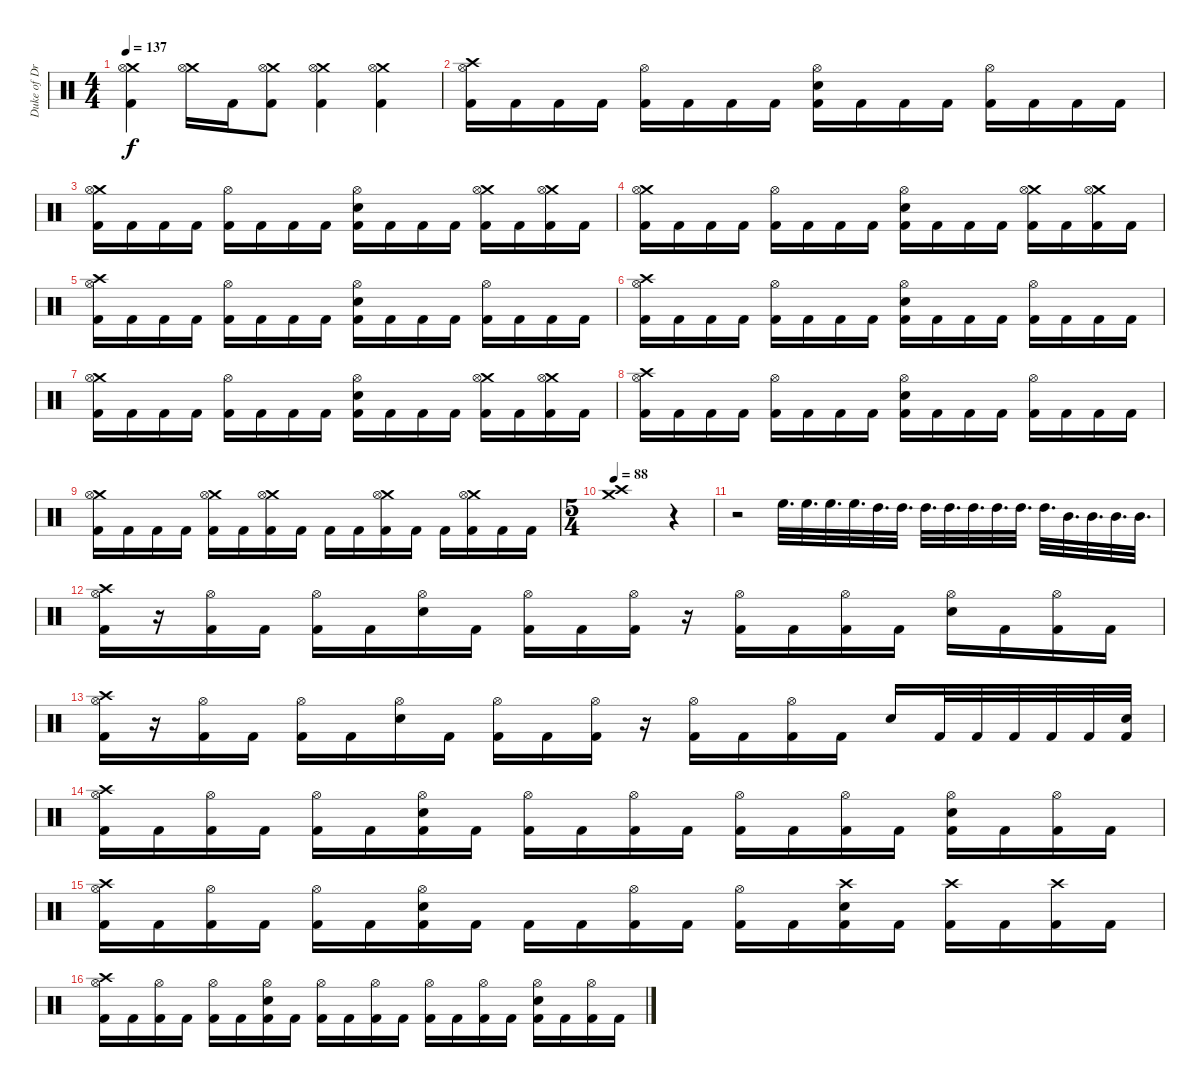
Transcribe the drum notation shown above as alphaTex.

\track ("Duke of Drumington" "Duke of Dr") {instrument percussion}
\staff {score}
\articulation defaults
\ts (4 4)
\tempo 137
\clef neutral
\ks c
("Crash medium (hit)" "Hi-Hat (open)" "Kick (hit) 2").4{dy f} ("Crash medium (hit)" "Hi-Hat (open)").16 "Kick (hit) 2".16 ("Crash medium (hit)" "Hi-Hat (open)" "Kick (hit) 2").8 ("Crash medium (hit)" "Hi-Hat (open)" "Kick (hit) 2").4 ("Crash medium (hit)" "Hi-Hat (open)" "Kick (hit) 2").4 |
("Crash high (hit)" "Hi-Hat (open)" "Kick (hit) 2").16 "Kick (hit) 2".16 "Kick (hit) 2".16 "Kick (hit) 2".16 ("Hi-Hat (open)" "Kick (hit) 2").16 "Kick (hit) 2".16 "Kick (hit) 2".16 "Kick (hit) 2".16 ("Hi-Hat (open)" "Snare (hit) 2" "Kick (hit) 2").16 "Kick (hit) 2".16 "Kick (hit) 2".16 "Kick (hit) 2".16 ("Hi-Hat (open)" "Kick (hit) 2").16 "Kick (hit) 2".16 "Kick (hit) 2".16 "Kick (hit) 2".16 |
("Crash medium (hit)" "Hi-Hat (open)" "Kick (hit) 2").16 "Kick (hit) 2".16 "Kick (hit) 2".16 "Kick (hit) 2".16 ("Hi-Hat (open)" "Kick (hit) 2").16 "Kick (hit) 2".16 "Kick (hit) 2".16 "Kick (hit) 2".16 ("Hi-Hat (open)" "Snare (hit) 2" "Kick (hit) 2").16 "Kick (hit) 2".16 "Kick (hit) 2".16 "Kick (hit) 2".16 ("Crash medium (hit)" "Hi-Hat (open)" "Kick (hit) 2").16 "Kick (hit) 2".16 ("Crash medium (hit)" "Hi-Hat (open)" "Kick (hit) 2").16 "Kick (hit) 2".16 |
("Crash medium (hit)" "Hi-Hat (open)" "Kick (hit) 2").16 "Kick (hit) 2".16 "Kick (hit) 2".16 "Kick (hit) 2".16 ("Hi-Hat (open)" "Kick (hit) 2").16 "Kick (hit) 2".16 "Kick (hit) 2".16 "Kick (hit) 2".16 ("Hi-Hat (open)" "Snare (hit) 2" "Kick (hit) 2").16 "Kick (hit) 2".16 "Kick (hit) 2".16 "Kick (hit) 2".16 ("Crash medium (hit)" "Hi-Hat (open)" "Kick (hit) 2").16 "Kick (hit) 2".16 ("Crash medium (hit)" "Hi-Hat (open)" "Kick (hit) 2").16 "Kick (hit) 2".16 |
("Crash high (hit)" "Hi-Hat (open)" "Kick (hit) 2").16 "Kick (hit) 2".16 "Kick (hit) 2".16 "Kick (hit) 2".16 ("Hi-Hat (open)" "Kick (hit) 2").16 "Kick (hit) 2".16 "Kick (hit) 2".16 "Kick (hit) 2".16 ("Hi-Hat (open)" "Snare (hit) 2" "Kick (hit) 2").16 "Kick (hit) 2".16 "Kick (hit) 2".16 "Kick (hit) 2".16 ("Hi-Hat (open)" "Kick (hit) 2").16 "Kick (hit) 2".16 "Kick (hit) 2".16 "Kick (hit) 2".16 |
("Crash high (hit)" "Hi-Hat (open)" "Kick (hit) 2").16 "Kick (hit) 2".16 "Kick (hit) 2".16 "Kick (hit) 2".16 ("Hi-Hat (open)" "Kick (hit) 2").16 "Kick (hit) 2".16 "Kick (hit) 2".16 "Kick (hit) 2".16 ("Hi-Hat (open)" "Snare (hit) 2" "Kick (hit) 2").16 "Kick (hit) 2".16 "Kick (hit) 2".16 "Kick (hit) 2".16 ("Hi-Hat (open)" "Kick (hit) 2").16 "Kick (hit) 2".16 "Kick (hit) 2".16 "Kick (hit) 2".16 |
("Crash medium (hit)" "Hi-Hat (open)" "Kick (hit) 2").16 "Kick (hit) 2".16 "Kick (hit) 2".16 "Kick (hit) 2".16 ("Hi-Hat (open)" "Kick (hit) 2").16 "Kick (hit) 2".16 "Kick (hit) 2".16 "Kick (hit) 2".16 ("Hi-Hat (open)" "Snare (hit) 2" "Kick (hit) 2").16 "Kick (hit) 2".16 "Kick (hit) 2".16 "Kick (hit) 2".16 ("Crash medium (hit)" "Hi-Hat (open)" "Kick (hit) 2").16 "Kick (hit) 2".16 ("Crash medium (hit)" "Hi-Hat (open)" "Kick (hit) 2").16 "Kick (hit) 2".16 |
("Crash high (hit)" "Hi-Hat (open)" "Kick (hit) 2").16 "Kick (hit) 2".16 "Kick (hit) 2".16 "Kick (hit) 2".16 ("Hi-Hat (open)" "Kick (hit) 2").16 "Kick (hit) 2".16 "Kick (hit) 2".16 "Kick (hit) 2".16 ("Hi-Hat (open)" "Snare (hit) 2" "Kick (hit) 2").16 "Kick (hit) 2".16 "Kick (hit) 2".16 "Kick (hit) 2".16 ("Hi-Hat (open)" "Kick (hit) 2").16 "Kick (hit) 2".16 "Kick (hit) 2".16 "Kick (hit) 2".16 |
("Crash medium (hit)" "Hi-Hat (open)" "Kick (hit) 2").16 "Kick (hit) 2".16 "Kick (hit) 2".16 "Kick (hit) 2".16 ("Crash medium (hit)" "Hi-Hat (open)" "Kick (hit) 2").16 "Kick (hit) 2".16 ("Crash medium (hit)" "Hi-Hat (open)" "Kick (hit) 2").16 "Kick (hit) 2".16 "Kick (hit) 2".16 "Kick (hit) 2".16 ("Crash medium (hit)" "Hi-Hat (open)" "Kick (hit) 2").16 "Kick (hit) 2".16 "Kick (hit) 2".16 ("Crash medium (hit)" "Hi-Hat (open)" "Kick (hit) 2").16 "Kick (hit) 2".16 "Kick (hit) 2".16 |
\ts (5 4)
\tempo 88
("Crash medium (hit)" "Crash high (hit)").1 r.4 |
r.2 "High Floor Tom (hit)".32{d} "High Floor Tom (hit)".32{d} "High Floor Tom (hit)".32{d} "High Floor Tom (hit)".32{d} "High Tom (hit)".32{d} "High Tom (hit)".32{d} "High Tom (hit)".32{d} "High Tom (hit)".32{d} "High Tom (hit)".32{d} "High Tom (hit)".32{d} "High Tom (hit)".32{d} "High Tom (hit)".32{d} "Mid Tom (hit)".32{d} "Mid Tom (hit)".32{d} "Mid Tom (hit)".32{d} "Mid Tom (hit)".32{d} |
("Crash high (hit)" "Hi-Hat (open)" "Kick (hit) 2").16 r.16 ("Hi-Hat (open)" "Kick (hit) 2").16 "Kick (hit) 2".16 ("Hi-Hat (open)" "Kick (hit) 2").16 "Kick (hit) 2".16 ("Hi-Hat (open)" "Snare (hit) 2").16 "Kick (hit) 2".16 ("Hi-Hat (open)" "Kick (hit) 2").16 "Kick (hit) 2".16 ("Hi-Hat (open)" "Kick (hit) 2").16 r.16 ("Hi-Hat (open)" "Kick (hit) 2").16 "Kick (hit) 2".16 ("Hi-Hat (open)" "Kick (hit) 2").16 "Kick (hit) 2".16 ("Hi-Hat (open)" "Snare (hit) 2").16 "Kick (hit) 2".16 ("Hi-Hat (open)" "Kick (hit) 2").16 "Kick (hit) 2".16 |
("Crash high (hit)" "Hi-Hat (open)" "Kick (hit) 2").16 r.16 ("Hi-Hat (open)" "Kick (hit) 2").16 "Kick (hit) 2".16 ("Hi-Hat (open)" "Kick (hit) 2").16 "Kick (hit) 2".16 ("Hi-Hat (open)" "Snare (hit) 2").16 "Kick (hit) 2".16 ("Hi-Hat (open)" "Kick (hit) 2").16 "Kick (hit) 2".16 ("Hi-Hat (open)" "Kick (hit) 2").16 r.16 ("Hi-Hat (open)" "Kick (hit) 2").16 "Kick (hit) 2".16 ("Hi-Hat (open)" "Kick (hit) 2").16 "Kick (hit) 2".16 "Snare (hit) 2".16 "Kick (hit) 2".32 "Kick (hit) 2".32 "Kick (hit) 2".32 "Kick (hit) 2".32 "Kick (hit) 2".32 ("Snare (hit) 2" "Kick (hit) 2").32 |
("Crash high (hit)" "Hi-Hat (open)" "Kick (hit) 2").16 "Kick (hit) 2".16 ("Hi-Hat (open)" "Kick (hit) 2").16 "Kick (hit) 2".16 ("Hi-Hat (open)" "Kick (hit) 2").16 "Kick (hit) 2".16 ("Hi-Hat (open)" "Snare (hit) 2" "Kick (hit) 2").16 "Kick (hit) 2".16 ("Hi-Hat (open)" "Kick (hit) 2").16 "Kick (hit) 2".16 ("Hi-Hat (open)" "Kick (hit) 2").16 "Kick (hit) 2".16 ("Hi-Hat (open)" "Kick (hit) 2").16 "Kick (hit) 2".16 ("Hi-Hat (open)" "Kick (hit) 2").16 "Kick (hit) 2".16 ("Hi-Hat (open)" "Snare (hit) 2" "Kick (hit) 2").16 "Kick (hit) 2".16 ("Hi-Hat (open)" "Kick (hit) 2").16 "Kick (hit) 2".16 |
("Crash high (hit)" "Hi-Hat (open)" "Kick (hit) 2").16 "Kick (hit) 2".16 ("Hi-Hat (open)" "Kick (hit) 2").16 "Kick (hit) 2".16 ("Hi-Hat (open)" "Kick (hit) 2").16 "Kick (hit) 2".16 ("Hi-Hat (open)" "Snare (hit) 2" "Kick (hit) 2").16 "Kick (hit) 2".16 "Kick (hit) 2".16 "Kick (hit) 2".16 ("Hi-Hat (open)" "Kick (hit) 2").16 "Kick (hit) 2".16 ("Hi-Hat (open)" "Kick (hit) 2").16 "Kick (hit) 2".16 ("Crash high (hit)" "Snare (hit) 2" "Kick (hit) 2").16 "Kick (hit) 2".16 ("Crash high (hit)" "Kick (hit) 2").16 "Kick (hit) 2".16 ("Crash high (hit)" "Kick (hit) 2").16 "Kick (hit) 2".16 |
("Crash high (hit)" "Hi-Hat (open)" "Kick (hit) 2").16 "Kick (hit) 2".16 ("Hi-Hat (open)" "Kick (hit) 2").16 "Kick (hit) 2".16 ("Hi-Hat (open)" "Kick (hit) 2").16 "Kick (hit) 2".16 ("Hi-Hat (open)" "Snare (hit) 2" "Kick (hit) 2").16 "Kick (hit) 2".16 ("Hi-Hat (open)" "Kick (hit) 2").16 "Kick (hit) 2".16 ("Hi-Hat (open)" "Kick (hit) 2").16 "Kick (hit) 2".16 ("Hi-Hat (open)" "Kick (hit) 2").16 "Kick (hit) 2".16 ("Hi-Hat (open)" "Kick (hit) 2").16 "Kick (hit) 2".16 ("Hi-Hat (open)" "Snare (hit) 2" "Kick (hit) 2").16 "Kick (hit) 2".16 ("Hi-Hat (open)" "Kick (hit) 2").16 "Kick (hit) 2".16
